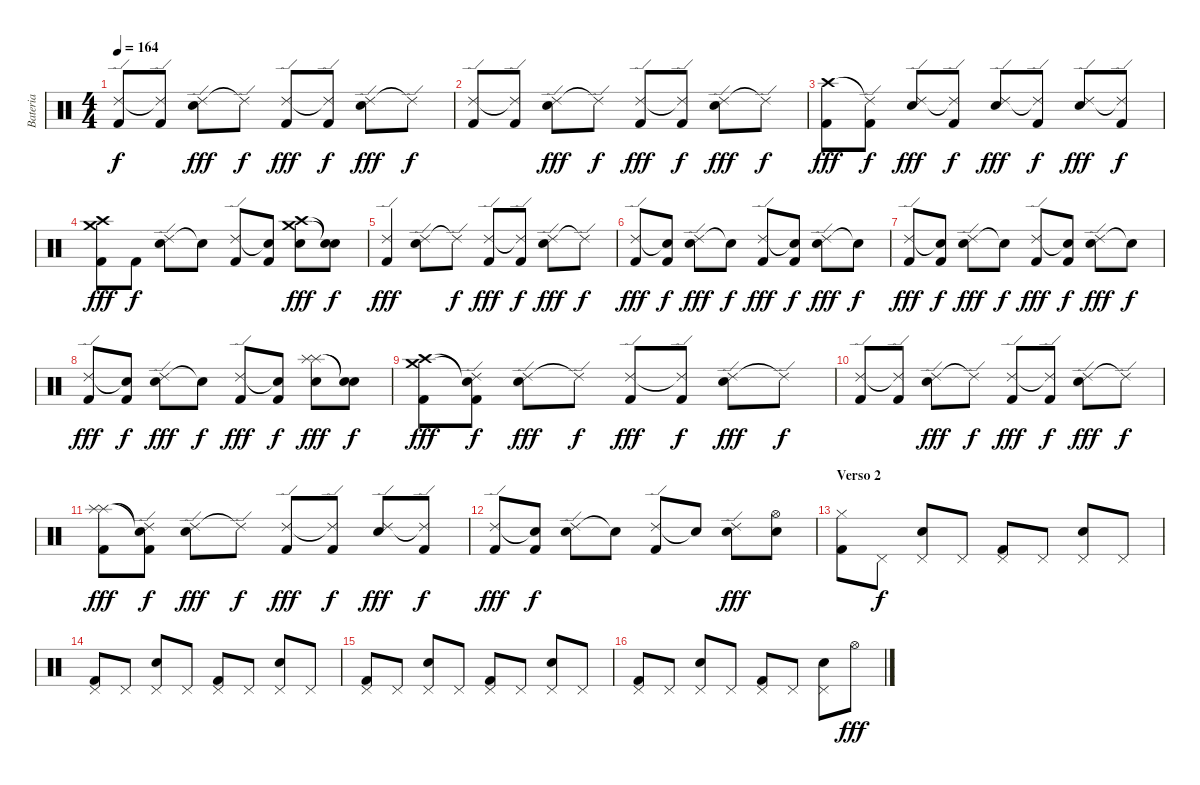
\track ("Bateria" "Bateria") {instrument percussion}
\staff {score}
\articulation defaults
\ts (4 4)
\tempo 164
\clef neutral
\ks c
("Ride (edge) 2" "Kick (hit) 2").8{dy f} ("Ride (edge) 2"{t} "Kick (hit) 2").8 ("Ride (edge) 2" "Electric Snare (hit)").8{dy fff} "Ride (edge) 2"{t}.8{dy f} ("Ride (edge) 2" "Kick (hit) 2").8{dy fff} ("Ride (edge) 2"{t} "Kick (hit) 2").8{dy f} ("Ride (edge) 2" "Electric Snare (hit)").8{dy fff} "Ride (edge) 2"{t}.8{dy f} |
("Ride (edge) 2" "Kick (hit) 2").8 ("Ride (edge) 2"{t} "Kick (hit) 2").8 ("Ride (edge) 2" "Electric Snare (hit)").8{dy fff} "Ride (edge) 2"{t}.8{dy f} ("Ride (edge) 2" "Kick (hit) 2").8{dy fff} ("Ride (edge) 2"{t} "Kick (hit) 2").8{dy f} ("Ride (edge) 2" "Electric Snare (hit)").8{dy fff} "Ride (edge) 2"{t}.8{dy f} |
("Crash high (hit)" "Kick (hit) 2").8{dy fff} ("Ride (edge) 2"{t} "Kick (hit) 2").8{dy f} ("Ride (edge) 2" "Electric Snare (hit)").8{dy fff} ("Ride (edge) 2"{t} "Kick (hit) 2").8{dy f} ("Ride (edge) 2" "Electric Snare (hit)").8{dy fff} ("Ride (edge) 2"{t} "Kick (hit) 2").8{dy f} ("Ride (edge) 2" "Electric Snare (hit)").8{dy fff} ("Ride (edge) 2"{t} "Kick (hit) 2").8{dy f} |
("Crash medium (hit)" "Crash high (hit)" "Kick (hit) 2").8{dy fff} "Kick (hit) 2".8{dy f} ("Ride (edge) 2" "Electric Snare (hit)").8 "Snare (hit)"{t}.8 ("Ride (edge) 2" "Kick (hit) 2").8 ("Snare (hit)"{t} "Kick (hit) 2").8 ("Crash medium (hit)" "Crash high (hit)" "Electric Snare (hit)").8{dy fff} ("Snare (hit)"{t} "Snare (hit)"{t}).8{dy f} |
("Ride (edge) 2" "Kick (hit) 2").4{dy fff} ("Ride (edge) 2" "Electric Snare (hit)").8 "Ride (edge) 2"{t}.8{dy f} ("Ride (edge) 2" "Kick (hit) 2").8{dy fff} ("Ride (edge) 2"{t} "Kick (hit) 2").8{dy f} ("Ride (edge) 2" "Electric Snare (hit)").8{dy fff} "Ride (edge) 2"{t}.8{dy f} |
("Ride (edge) 2" "Kick (hit) 2").8{dy fff} ("Snare (hit)"{t} "Kick (hit) 2").8{dy f} ("Ride (edge) 2" "Electric Snare (hit)").8{dy fff} "Snare (hit)"{t}.8{dy f} ("Ride (edge) 2" "Kick (hit) 2").8{dy fff} ("Snare (hit)"{t} "Kick (hit) 2").8{dy f} ("Ride (edge) 2" "Electric Snare (hit)").8{dy fff} "Snare (hit)"{t}.8{dy f} |
("Ride (edge) 2" "Kick (hit) 2").8{dy fff} ("Snare (hit)"{t} "Kick (hit) 2").8{dy f} ("Ride (edge) 2" "Electric Snare (hit)").8{dy fff} "Snare (hit)"{t}.8{dy f} ("Ride (edge) 2" "Kick (hit) 2").8{dy fff} ("Snare (hit)"{t} "Kick (hit) 2").8{dy f} ("Ride (edge) 2" "Electric Snare (hit)").8{dy fff} "Snare (hit)"{t}.8{dy f} |
("Ride (edge) 2" "Kick (hit) 2").8{dy fff} ("Snare (hit)"{t} "Kick (hit) 2").8{dy f} ("Ride (edge) 2" "Electric Snare (hit)").8{dy fff} "Snare (hit)"{t}.8{dy f} ("Ride (edge) 2" "Kick (hit) 2").8{dy fff} ("Snare (hit)"{t} "Kick (hit) 2").8{dy f} ("Splash (hit)" "Splash (hit)" "Electric Snare (hit)").8{dy fff} ("Snare (hit)"{t} "Snare (hit)"{t}).8{dy f} |
("Crash medium (hit)" "Crash high (hit)" "Kick (hit) 2").8{dy fff} ("Ride (edge) 2"{t} "Snare (hit)"{t} "Kick (hit) 2").8{dy f} ("Ride (edge) 2" "Electric Snare (hit)").8{dy fff} "Ride (edge) 2"{t}.8{dy f} ("Ride (edge) 2" "Kick (hit) 2").8{dy fff} ("Ride (edge) 2"{t} "Kick (hit) 2").8{dy f} ("Ride (edge) 2" "Electric Snare (hit)").8{dy fff} "Ride (edge) 2"{t}.8{dy f} |
("Ride (edge) 2" "Kick (hit) 2").8 ("Ride (edge) 2"{t} "Kick (hit) 2").8 ("Ride (edge) 2" "Electric Snare (hit)").8{dy fff} "Ride (edge) 2"{t}.8{dy f} ("Ride (edge) 2" "Kick (hit) 2").8{dy fff} ("Ride (edge) 2"{t} "Kick (hit) 2").8{dy f} ("Ride (edge) 2" "Electric Snare (hit)").8{dy fff} "Ride (edge) 2"{t}.8{dy f} |
("Splash (hit)" "Splash (hit)" "Kick (hit) 2").8{dy fff} ("Ride (edge) 2"{t} "Snare (hit)"{t} "Kick (hit) 2").8{dy f} ("Ride (edge) 2" "Electric Snare (hit)").8{dy fff} "Ride (edge) 2"{t}.8{dy f} ("Ride (edge) 2" "Kick (hit) 2").8{dy fff} ("Ride (edge) 2"{t} "Kick (hit) 2").8{dy f} ("Ride (edge) 2" "Electric Snare (hit)").8{dy fff} ("Ride (edge) 2"{t} "Kick (hit) 2").8{dy f} |
("Ride (edge) 2" "Kick (hit) 2").8{dy fff} ("Snare (hit)"{t} "Kick (hit) 2").8{dy f} ("Ride (edge) 2" "Electric Snare (hit)").8 "Snare (hit)"{t}.8 ("Ride (edge) 2" "Kick (hit) 2").8 "Snare (hit)"{t}.8 ("Ride (edge) 2" "Electric Snare (hit)").8{dy fff} ("Hi-Hat (open)" "Electric Snare (hit)").8 |
\section ("" "Verso 2")
("Hi-Hat (closed)" "Kick (hit) 2").8 "Pedal Hi-Hat (hit)".8{dy f} ("Pedal Hi-Hat (hit)" "Electric Snare (hit)").8 "Pedal Hi-Hat (hit)".8 ("Pedal Hi-Hat (hit)" "Kick (hit) 2").8 "Pedal Hi-Hat (hit)".8 ("Pedal Hi-Hat (hit)" "Electric Snare (hit)").8 "Pedal Hi-Hat (hit)".8 |
("Pedal Hi-Hat (hit)" "Kick (hit) 2").8 "Pedal Hi-Hat (hit)".8 ("Pedal Hi-Hat (hit)" "Electric Snare (hit)").8 "Pedal Hi-Hat (hit)".8 ("Pedal Hi-Hat (hit)" "Kick (hit) 2").8 "Pedal Hi-Hat (hit)".8 ("Pedal Hi-Hat (hit)" "Electric Snare (hit)").8 "Pedal Hi-Hat (hit)".8 |
("Pedal Hi-Hat (hit)" "Kick (hit) 2").8 "Pedal Hi-Hat (hit)".8 ("Pedal Hi-Hat (hit)" "Electric Snare (hit)").8 "Pedal Hi-Hat (hit)".8 ("Pedal Hi-Hat (hit)" "Kick (hit) 2").8 "Pedal Hi-Hat (hit)".8 ("Pedal Hi-Hat (hit)" "Electric Snare (hit)").8 "Pedal Hi-Hat (hit)".8 |
("Pedal Hi-Hat (hit)" "Kick (hit) 2").8 "Pedal Hi-Hat (hit)".8 ("Pedal Hi-Hat (hit)" "Electric Snare (hit)").8 "Pedal Hi-Hat (hit)".8 ("Pedal Hi-Hat (hit)" "Kick (hit) 2").8 "Pedal Hi-Hat (hit)".8 ("Pedal Hi-Hat (hit)" "Electric Snare (hit)").8 "Hi-Hat (open)".8{dy fff}
